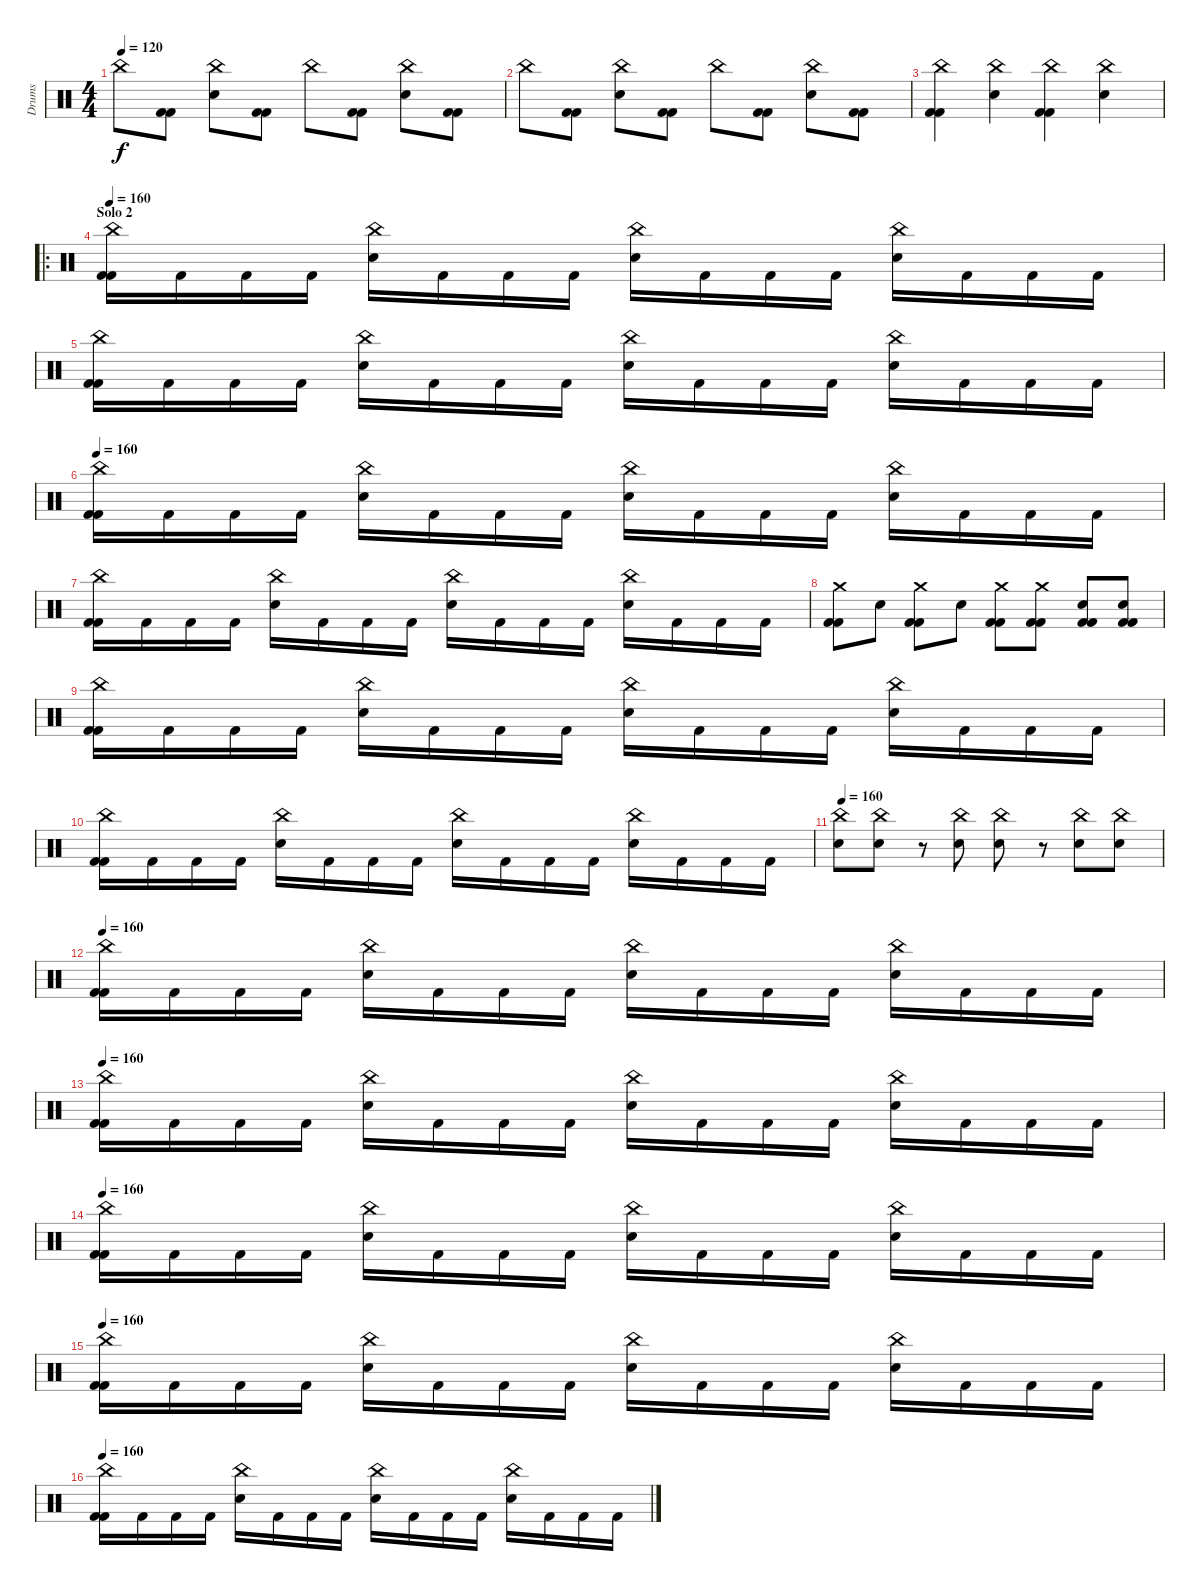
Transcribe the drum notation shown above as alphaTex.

\track ("Drums" "Drums") {instrument percussion}
\staff {score}
\articulation defaults
\ts (4 4)
\tempo 120
\clef neutral
\ks c "China (hit)".8{dy f}
("Kick (hit) 2" "Kick (hit) 2").8 ("Electric Snare (hit)" "China (hit)").8 ("Kick (hit) 2" "Kick (hit) 2").8 "China (hit)".8 ("Kick (hit) 2" "Kick (hit) 2").8 ("China (hit)" "Electric Snare (hit)").8 ("Kick (hit) 2" "Kick (hit) 2").8 |
"China (hit)".8 ("Kick (hit) 2" "Kick (hit) 2").8 ("Electric Snare (hit)" "China (hit)").8 ("Kick (hit) 2" "Kick (hit) 2").8 "China (hit)".8 ("Kick (hit) 2" "Kick (hit) 2").8 ("China (hit)" "Electric Snare (hit)").8 ("Kick (hit) 2" "Kick (hit) 2").8 |
("China (hit)" "Kick (hit) 2" "Kick (hit) 2").4 ("Electric Snare (hit)" "China (hit)").4 ("China (hit)" "Kick (hit) 2" "Kick (hit) 2").4 ("Electric Snare (hit)" "China (hit)").4 |
\ro
\section ("" "Solo 2")
\tempo 160
("China (hit)" "Kick (hit) 2" "Kick (hit) 2").16 "Kick (hit) 2".16 "Kick (hit) 2".16 "Kick (hit) 2".16 ("Electric Snare (hit)" "China (hit)").16 "Kick (hit) 2".16 "Kick (hit) 2".16 "Kick (hit) 2".16 ("Electric Snare (hit)" "China (hit)").16 "Kick (hit) 2".16 "Kick (hit) 2".16 "Kick (hit) 2".16 ("China (hit)" "Electric Snare (hit)").16 "Kick (hit) 2".16 "Kick (hit) 2".16 "Kick (hit) 2".16 |
("China (hit)" "Kick (hit) 2" "Kick (hit) 2").16 "Kick (hit) 2".16 "Kick (hit) 2".16 "Kick (hit) 2".16 ("Electric Snare (hit)" "China (hit)").16 "Kick (hit) 2".16 "Kick (hit) 2".16 "Kick (hit) 2".16 ("Electric Snare (hit)" "China (hit)").16 "Kick (hit) 2".16 "Kick (hit) 2".16 "Kick (hit) 2".16 ("China (hit)" "Electric Snare (hit)").16 "Kick (hit) 2".16 "Kick (hit) 2".16 "Kick (hit) 2".16 |
\tempo 160
("China (hit)" "Kick (hit) 2" "Kick (hit) 2").16 "Kick (hit) 2".16 "Kick (hit) 2".16 "Kick (hit) 2".16 ("Electric Snare (hit)" "China (hit)").16 "Kick (hit) 2".16 "Kick (hit) 2".16 "Kick (hit) 2".16 ("Electric Snare (hit)" "China (hit)").16 "Kick (hit) 2".16 "Kick (hit) 2".16 "Kick (hit) 2".16 ("China (hit)" "Electric Snare (hit)").16 "Kick (hit) 2".16 "Kick (hit) 2".16 "Kick (hit) 2".16 |
("China (hit)" "Kick (hit) 2" "Kick (hit) 2").16 "Kick (hit) 2".16 "Kick (hit) 2".16 "Kick (hit) 2".16 ("Electric Snare (hit)" "China (hit)").16 "Kick (hit) 2".16 "Kick (hit) 2".16 "Kick (hit) 2".16 ("Electric Snare (hit)" "China (hit)").16 "Kick (hit) 2".16 "Kick (hit) 2".16 "Kick (hit) 2".16 ("China (hit)" "Electric Snare (hit)").16 "Kick (hit) 2".16 "Kick (hit) 2".16 "Kick (hit) 2".16 |
("Crash medium (hit)" "Kick (hit) 2" "Kick (hit) 2").8 "Electric Snare (hit)".8 ("Crash medium (hit)" "Kick (hit) 2" "Kick (hit) 2").8 "Electric Snare (hit)".8 ("Kick (hit) 2" "Kick (hit) 2" "Crash medium (hit)").8 ("Crash medium (hit)" "Kick (hit) 2" "Kick (hit) 2").8 ("Kick (hit) 2" "Kick (hit) 2" "Electric Snare (hit)").8 ("Electric Snare (hit)" "Kick (hit) 2" "Kick (hit) 2").8 |
("China (hit)" "Kick (hit) 2" "Kick (hit) 2").16 "Kick (hit) 2".16 "Kick (hit) 2".16 "Kick (hit) 2".16 ("Electric Snare (hit)" "China (hit)").16 "Kick (hit) 2".16 "Kick (hit) 2".16 "Kick (hit) 2".16 ("Electric Snare (hit)" "China (hit)").16 "Kick (hit) 2".16 "Kick (hit) 2".16 "Kick (hit) 2".16 ("China (hit)" "Electric Snare (hit)").16 "Kick (hit) 2".16 "Kick (hit) 2".16 "Kick (hit) 2".16 |
("China (hit)" "Kick (hit) 2" "Kick (hit) 2").16 "Kick (hit) 2".16 "Kick (hit) 2".16 "Kick (hit) 2".16 ("Electric Snare (hit)" "China (hit)").16 "Kick (hit) 2".16 "Kick (hit) 2".16 "Kick (hit) 2".16 ("Electric Snare (hit)" "China (hit)").16 "Kick (hit) 2".16 "Kick (hit) 2".16 "Kick (hit) 2".16 ("China (hit)" "Electric Snare (hit)").16 "Kick (hit) 2".16 "Kick (hit) 2".16 "Kick (hit) 2".16 |
\tempo 160
("China (hit)" "Electric Snare (hit)").8 ("Electric Snare (hit)" "China (hit)").8 r.8 ("China (hit)" "Electric Snare (hit)").8 ("Electric Snare (hit)" "China (hit)").8 r.8 ("China (hit)" "Electric Snare (hit)").8 ("Electric Snare (hit)" "China (hit)").8 |
\tempo 160
("China (hit)" "Kick (hit) 2" "Kick (hit) 2").16 "Kick (hit) 2".16 "Kick (hit) 2".16 "Kick (hit) 2".16 ("Electric Snare (hit)" "China (hit)").16 "Kick (hit) 2".16 "Kick (hit) 2".16 "Kick (hit) 2".16 ("Electric Snare (hit)" "China (hit)").16 "Kick (hit) 2".16 "Kick (hit) 2".16 "Kick (hit) 2".16 ("China (hit)" "Electric Snare (hit)").16 "Kick (hit) 2".16 "Kick (hit) 2".16 "Kick (hit) 2".16 |
\tempo 160
("China (hit)" "Kick (hit) 2" "Kick (hit) 2").16 "Kick (hit) 2".16 "Kick (hit) 2".16 "Kick (hit) 2".16 ("Electric Snare (hit)" "China (hit)").16 "Kick (hit) 2".16 "Kick (hit) 2".16 "Kick (hit) 2".16 ("Electric Snare (hit)" "China (hit)").16 "Kick (hit) 2".16 "Kick (hit) 2".16 "Kick (hit) 2".16 ("China (hit)" "Electric Snare (hit)").16 "Kick (hit) 2".16 "Kick (hit) 2".16 "Kick (hit) 2".16 |
\tempo 160
("China (hit)" "Kick (hit) 2" "Kick (hit) 2").16 "Kick (hit) 2".16 "Kick (hit) 2".16 "Kick (hit) 2".16 ("Electric Snare (hit)" "China (hit)").16 "Kick (hit) 2".16 "Kick (hit) 2".16 "Kick (hit) 2".16 ("Electric Snare (hit)" "China (hit)").16 "Kick (hit) 2".16 "Kick (hit) 2".16 "Kick (hit) 2".16 ("China (hit)" "Electric Snare (hit)").16 "Kick (hit) 2".16 "Kick (hit) 2".16 "Kick (hit) 2".16 |
\tempo 160
("China (hit)" "Kick (hit) 2" "Kick (hit) 2").16 "Kick (hit) 2".16 "Kick (hit) 2".16 "Kick (hit) 2".16 ("Electric Snare (hit)" "China (hit)").16 "Kick (hit) 2".16 "Kick (hit) 2".16 "Kick (hit) 2".16 ("Electric Snare (hit)" "China (hit)").16 "Kick (hit) 2".16 "Kick (hit) 2".16 "Kick (hit) 2".16 ("China (hit)" "Electric Snare (hit)").16 "Kick (hit) 2".16 "Kick (hit) 2".16 "Kick (hit) 2".16 |
\tempo 160
("China (hit)" "Kick (hit) 2" "Kick (hit) 2").16 "Kick (hit) 2".16 "Kick (hit) 2".16 "Kick (hit) 2".16 ("Electric Snare (hit)" "China (hit)").16 "Kick (hit) 2".16 "Kick (hit) 2".16 "Kick (hit) 2".16 ("Electric Snare (hit)" "China (hit)").16 "Kick (hit) 2".16 "Kick (hit) 2".16 "Kick (hit) 2".16 ("China (hit)" "Electric Snare (hit)").16 "Kick (hit) 2".16 "Kick (hit) 2".16 "Kick (hit) 2".16
